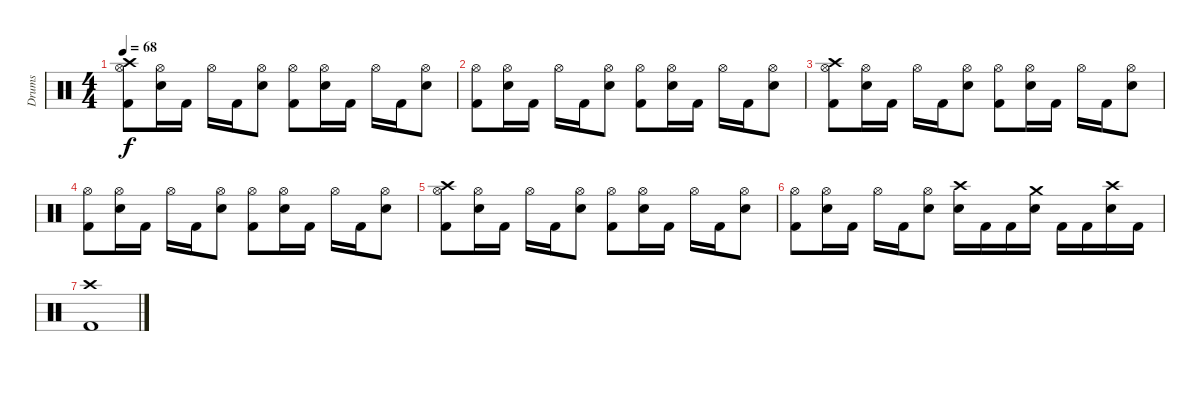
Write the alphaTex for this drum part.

\track ("Drums" "Drums") {instrument percussion}
\staff {score}
\articulation defaults
\ts (4 4)
\tempo 68
\clef neutral
\ks c
("Crash high (hit)" "Hi-Hat (open)" "Kick (hit) 2").8{dy f} ("Hi-Hat (open)" "Snare (hit) 2").16 "Kick (hit) 2".16 "Hi-Hat (open)".16 "Kick (hit) 2".16 ("Hi-Hat (open)" "Snare (hit) 2").8 ("Hi-Hat (open)" "Kick (hit) 2").8 ("Hi-Hat (open)" "Snare (hit) 2").16 "Kick (hit) 2".16 "Hi-Hat (open)".16 "Kick (hit) 2".16 ("Hi-Hat (open)" "Snare (hit) 2").8 |
("Hi-Hat (open)" "Kick (hit) 2").8 ("Hi-Hat (open)" "Snare (hit) 2").16 "Kick (hit) 2".16 "Hi-Hat (open)".16 "Kick (hit) 2".16 ("Hi-Hat (open)" "Snare (hit) 2").8 ("Hi-Hat (open)" "Kick (hit) 2").8 ("Hi-Hat (open)" "Snare (hit) 2").16 "Kick (hit) 2".16 "Hi-Hat (open)".16 "Kick (hit) 2".16 ("Hi-Hat (open)" "Snare (hit) 2").8 |
("Crash high (hit)" "Hi-Hat (open)" "Kick (hit) 2").8 ("Hi-Hat (open)" "Snare (hit) 2").16 "Kick (hit) 2".16 "Hi-Hat (open)".16 "Kick (hit) 2".16 ("Hi-Hat (open)" "Snare (hit) 2").8 ("Hi-Hat (open)" "Kick (hit) 2").8 ("Hi-Hat (open)" "Snare (hit) 2").16 "Kick (hit) 2".16 "Hi-Hat (open)".16 "Kick (hit) 2".16 ("Hi-Hat (open)" "Snare (hit) 2").8 |
("Hi-Hat (open)" "Kick (hit) 2").8 ("Hi-Hat (open)" "Snare (hit) 2").16 "Kick (hit) 2".16 "Hi-Hat (open)".16 "Kick (hit) 2".16 ("Hi-Hat (open)" "Snare (hit) 2").8 ("Hi-Hat (open)" "Kick (hit) 2").8 ("Hi-Hat (open)" "Snare (hit) 2").16 "Kick (hit) 2".16 "Hi-Hat (open)".16 "Kick (hit) 2".16 ("Hi-Hat (open)" "Snare (hit) 2").8 |
("Crash high (hit)" "Hi-Hat (open)" "Kick (hit) 2").8 ("Hi-Hat (open)" "Snare (hit) 2").16 "Kick (hit) 2".16 "Hi-Hat (open)".16 "Kick (hit) 2".16 ("Hi-Hat (open)" "Snare (hit) 2").8 ("Hi-Hat (open)" "Kick (hit) 2").8 ("Hi-Hat (open)" "Snare (hit) 2").16 "Kick (hit) 2".16 "Hi-Hat (open)".16 "Kick (hit) 2".16 ("Hi-Hat (open)" "Snare (hit) 2").8 |
("Hi-Hat (open)" "Kick (hit) 2").8 ("Hi-Hat (open)" "Snare (hit) 2").16 "Kick (hit) 2".16 "Hi-Hat (open)".16 "Kick (hit) 2".16 ("Hi-Hat (open)" "Snare (hit) 2").8 ("Crash high (hit)" "Snare (hit) 2").16 "Kick (hit) 2".16 "Kick (hit) 2".16 ("Crash medium (hit)" "Snare (hit) 2").16 "Kick (hit) 2".16 "Kick (hit) 2".16 ("Crash high (hit)" "Snare (hit) 2").16 "Kick (hit) 2".16 |
("Crash high (hit)" "Kick (hit) 2").1
